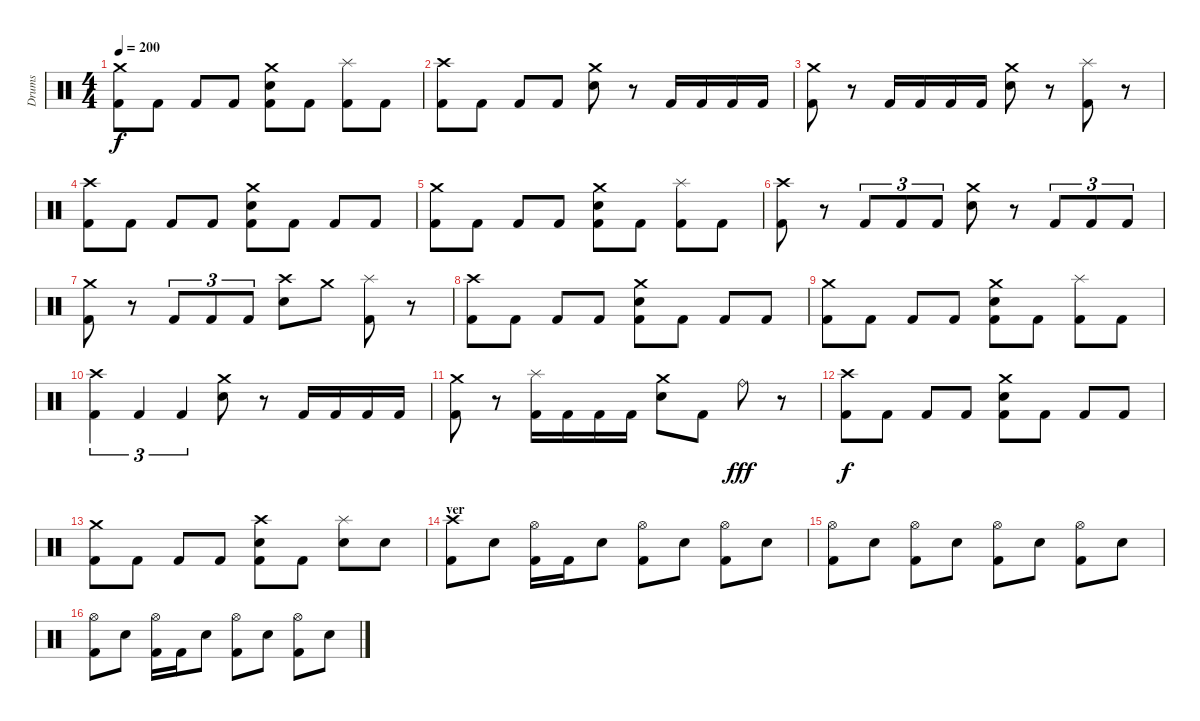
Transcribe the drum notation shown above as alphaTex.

\track ("Drums" "Drums") {instrument percussion}
\staff {score}
\articulation defaults
\ts (4 4)
\tempo 200
\clef neutral
\ks c
("Crash medium (hit)" "Kick (hit) 2").8{dy f} "Kick (hit) 2".8 "Kick (hit) 2".8 "Kick (hit) 2".8 ("Crash medium (hit)" "Electric Snare (hit)" "Kick (hit) 2").8 "Kick (hit) 2".8 ("Splash (hit)" "Kick (hit) 2").8 "Kick (hit) 2".8 |
("Crash high (hit)" "Kick (hit) 2").8 "Kick (hit) 2".8 "Kick (hit) 2".8 "Kick (hit) 2".8 ("Crash medium (hit)" "Electric Snare (hit)").8 r.8 "Kick (hit) 2".16 "Kick (hit) 2".16 "Kick (hit) 2".16 "Kick (hit) 2".16 |
("Crash medium (hit)" "Kick (hit) 2").8 r.8 "Kick (hit) 2".16 "Kick (hit) 2".16 "Kick (hit) 2".16 "Kick (hit) 2".16 ("Crash medium (hit)" "Electric Snare (hit)").8 r.8 ("Splash (hit)" "Kick (hit) 2").8 r.8 |
("Crash high (hit)" "Kick (hit) 2").8 "Kick (hit) 2".8 "Kick (hit) 2".8 "Kick (hit) 2".8 ("Crash medium (hit)" "Electric Snare (hit)" "Kick (hit) 2").8 "Kick (hit) 2".8 "Kick (hit) 2".8 "Kick (hit) 2".8 |
("Crash medium (hit)" "Kick (hit) 2").8 "Kick (hit) 2".8 "Kick (hit) 2".8 "Kick (hit) 2".8 ("Crash medium (hit)" "Electric Snare (hit)" "Kick (hit) 2").8 "Kick (hit) 2".8 ("Splash (hit)" "Kick (hit) 2").8 "Kick (hit) 2".8 |
("Crash high (hit)" "Kick (hit) 2").8 r.8 "Kick (hit) 2".8{tu (3 2)} "Kick (hit) 2".8{tu (3 2)} "Kick (hit) 2".8{tu (3 2)} ("Crash medium (hit)" "Electric Snare (hit)").8 r.8 "Kick (hit) 2".8{tu (3 2)} "Kick (hit) 2".8{tu (3 2)} "Kick (hit) 2".8{tu (3 2)} |
("Crash medium (hit)" "Kick (hit) 2").8 r.8 "Kick (hit) 2".8{tu (3 2)} "Kick (hit) 2".8{tu (3 2)} "Kick (hit) 2".8{tu (3 2)} ("Crash high (hit)" "Electric Snare (hit)").8 "Crash medium (hit)".8 ("Splash (hit)" "Kick (hit) 2").8 r.8 |
("Crash high (hit)" "Kick (hit) 2").8 "Kick (hit) 2".8 "Kick (hit) 2".8 "Kick (hit) 2".8 ("Crash medium (hit)" "Electric Snare (hit)" "Kick (hit) 2").8 "Kick (hit) 2".8 "Kick (hit) 2".8 "Kick (hit) 2".8 |
("Crash medium (hit)" "Kick (hit) 2").8 "Kick (hit) 2".8 "Kick (hit) 2".8 "Kick (hit) 2".8 ("Crash medium (hit)" "Electric Snare (hit)" "Kick (hit) 2").8 "Kick (hit) 2".8 ("Splash (hit)" "Kick (hit) 2").8 "Kick (hit) 2".8 |
("Crash high (hit)" "Kick (hit) 2").4{tu (3 2)} "Kick (hit) 2".4{tu (3 2)} "Kick (hit) 2".4{tu (3 2)} ("Crash medium (hit)" "Electric Snare (hit)").8 r.8 "Kick (hit) 2".16 "Kick (hit) 2".16 "Kick (hit) 2".16 "Kick (hit) 2".16 |
("Crash medium (hit)" "Kick (hit) 2").8 r.8 ("Splash (hit)" "Kick (hit) 2").16 "Kick (hit) 2".16 "Kick (hit) 2".16 "Kick (hit) 2".16 ("Crash medium (hit)" "Electric Snare (hit)").8 "Kick (hit) 2".8 "Ride (bell)".8{dy fff} r.8 |
("Crash high (hit)" "Kick (hit) 2").8{dy f} "Kick (hit) 2".8 "Kick (hit) 2".8 "Kick (hit) 2".8 ("Crash medium (hit)" "Electric Snare (hit)" "Kick (hit) 2").8 "Kick (hit) 2".8 "Kick (hit) 2".8 "Kick (hit) 2".8 |
("Crash medium (hit)" "Kick (hit) 2").8 "Kick (hit) 2".8 "Kick (hit) 2".8 "Kick (hit) 2".8 ("Crash high (hit)" "Electric Snare (hit)" "Kick (hit) 2").8 "Kick (hit) 2".8 ("Splash (hit)" "Electric Snare (hit)").8 "Electric Snare (hit)".8 |
\section ("" "ver")
("Crash high (hit)" "Kick (hit) 2").8 "Electric Snare (hit)".8 ("Hi-Hat (open)" "Kick (hit) 2").16 "Kick (hit) 2".16 "Electric Snare (hit)".8 ("Hi-Hat (open)" "Kick (hit) 2").8 "Electric Snare (hit)".8 ("Hi-Hat (open)" "Kick (hit) 2").8 "Electric Snare (hit)".8 |
("Hi-Hat (open)" "Kick (hit) 2").8 "Electric Snare (hit)".8 ("Hi-Hat (open)" "Kick (hit) 2").8 "Electric Snare (hit)".8 ("Hi-Hat (open)" "Kick (hit) 2").8 "Electric Snare (hit)".8 ("Hi-Hat (open)" "Kick (hit) 2").8 "Electric Snare (hit)".8 |
("Hi-Hat (open)" "Kick (hit) 2").8 "Electric Snare (hit)".8 ("Hi-Hat (open)" "Kick (hit) 2").16 "Kick (hit) 2".16 "Electric Snare (hit)".8 ("Hi-Hat (open)" "Kick (hit) 2").8 "Electric Snare (hit)".8 ("Hi-Hat (open)" "Kick (hit) 2").8 "Electric Snare (hit)".8
